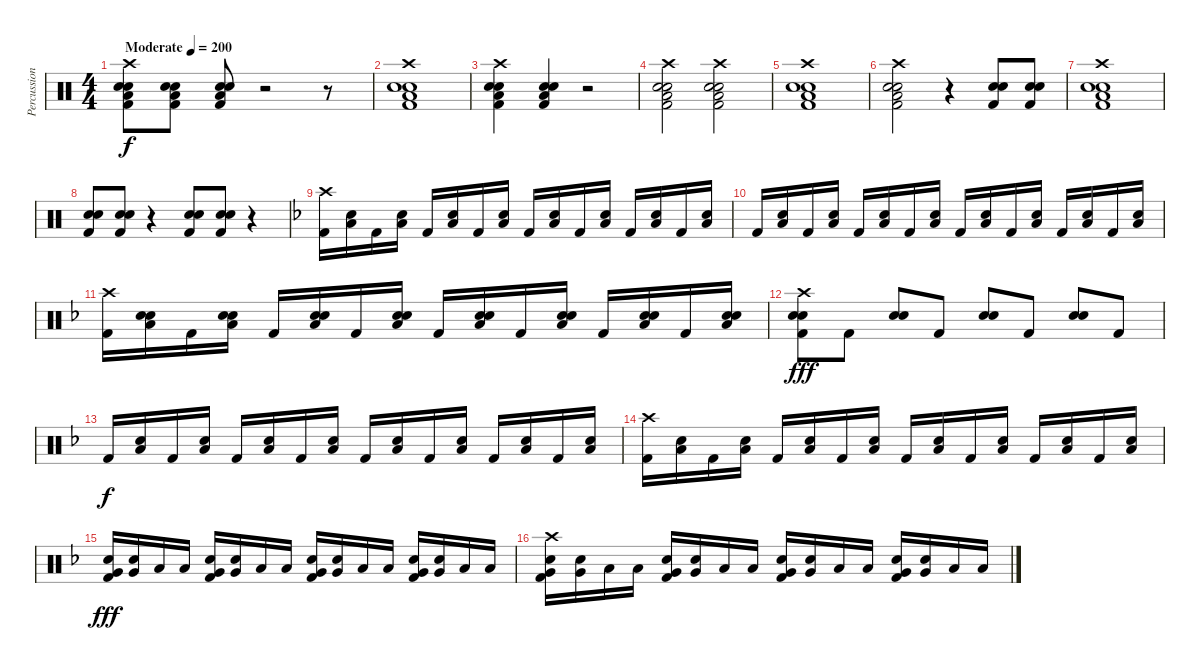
\track ("Percussion, dave" "Percussion") {instrument percussion}
\staff {score}
\articulation defaults
\ts (4 4)
\tempo (200 "Moderate")
\clef neutral
\ks c
("Crash high (hit)" "Low Tom (hit)" "Electric Snare (hit)" "Snare (hit) 2" "Kick (hit) 2").8{dy f} ("Low Tom (hit)" "Electric Snare (hit)" "Snare (hit) 2" "Kick (hit) 2").8 ("Low Tom (hit)" "Electric Snare (hit)" "Snare (hit) 2" "Kick (hit) 2").8 r.2 r.8 |
("Crash high (hit)" "Low Tom (hit)" "Electric Snare (hit)" "Snare (hit) 2" "Kick (hit) 2").1 |
("Crash high (hit)" "Low Tom (hit)" "Electric Snare (hit)" "Snare (hit) 2" "Kick (hit) 2").4 ("Low Tom (hit)" "Electric Snare (hit)" "Snare (hit) 2" "Kick (hit) 2").4 r.2 |
("Crash high (hit)" "Low Tom (hit)" "Electric Snare (hit)" "Snare (hit) 2" "Kick (hit) 2").2 ("Crash high (hit)" "Low Tom (hit)" "Electric Snare (hit)" "Snare (hit) 2" "Kick (hit) 2").2 |
("Crash high (hit)" "Low Tom (hit)" "Electric Snare (hit)" "Snare (hit) 2" "Kick (hit) 2").1 |
("Crash high (hit)" "Low Tom (hit)" "Electric Snare (hit)" "Snare (hit) 2" "Kick (hit) 2").2 r.4 ("Electric Snare (hit)" "Snare (hit) 2" "Kick (hit) 2").8 ("Electric Snare (hit)" "Snare (hit) 2" "Kick (hit) 2").8 |
("Crash high (hit)" "Low Tom (hit)" "Electric Snare (hit)" "Snare (hit) 2" "Kick (hit) 2").1 |
("Electric Snare (hit)" "Snare (hit) 2" "Kick (hit) 2").8 ("Electric Snare (hit)" "Snare (hit) 2" "Kick (hit) 2").8 r.4 ("Electric Snare (hit)" "Snare (hit) 2" "Kick (hit) 2").8 ("Electric Snare (hit)" "Snare (hit) 2" "Kick (hit) 2").8 r.4 |
\ks f
("Crash high (hit)" "Kick (hit) 2").16 ("Low Tom (hit)" "Snare (hit) 2").16 "Kick (hit) 2".16 ("Low Tom (hit)" "Snare (hit) 2").16 "Kick (hit) 2".16 ("Low Tom (hit)" "Snare (hit) 2").16 "Kick (hit) 2".16 ("Low Tom (hit)" "Snare (hit) 2").16 "Kick (hit) 2".16 ("Low Tom (hit)" "Snare (hit) 2").16 "Kick (hit) 2".16 ("Low Tom (hit)" "Snare (hit) 2").16 "Kick (hit) 2".16 ("Low Tom (hit)" "Snare (hit) 2").16 "Kick (hit) 2".16 ("Low Tom (hit)" "Snare (hit) 2").16 |
"Kick (hit) 2".16 ("Low Tom (hit)" "Snare (hit) 2").16 "Kick (hit) 2".16 ("Low Tom (hit)" "Snare (hit) 2").16 "Kick (hit) 2".16 ("Low Tom (hit)" "Snare (hit) 2").16 "Kick (hit) 2".16 ("Low Tom (hit)" "Snare (hit) 2").16 "Kick (hit) 2".16 ("Low Tom (hit)" "Snare (hit) 2").16 "Kick (hit) 2".16 ("Low Tom (hit)" "Snare (hit) 2").16 "Kick (hit) 2".16 ("Low Tom (hit)" "Snare (hit) 2").16 "Kick (hit) 2".16 ("Low Tom (hit)" "Snare (hit) 2").16 |
("Crash high (hit)" "Kick (hit) 2").16 ("Electric Snare (hit)" "Low Tom (hit)" "Snare (hit) 2").16 "Kick (hit) 2".16 ("Electric Snare (hit)" "Low Tom (hit)" "Snare (hit) 2").16 "Kick (hit) 2".16 ("Electric Snare (hit)" "Low Tom (hit)" "Snare (hit) 2").16 "Kick (hit) 2".16 ("Electric Snare (hit)" "Low Tom (hit)" "Snare (hit) 2").16 "Kick (hit) 2".16 ("Electric Snare (hit)" "Low Tom (hit)" "Snare (hit) 2").16 "Kick (hit) 2".16 ("Electric Snare (hit)" "Low Tom (hit)" "Snare (hit) 2").16 "Kick (hit) 2".16 ("Electric Snare (hit)" "Low Tom (hit)" "Snare (hit) 2").16 "Kick (hit) 2".16 ("Electric Snare (hit)" "Low Tom (hit)" "Snare (hit) 2").16 |
("Crash high (hit)" "Electric Snare (hit)" "Snare (hit) 2" "Kick (hit) 2").8{dy fff} "Kick (hit) 2".8 ("Electric Snare (hit)" "Snare (hit) 2").8 "Kick (hit) 2".8 ("Electric Snare (hit)" "Snare (hit) 2").8 "Kick (hit) 2".8 ("Electric Snare (hit)" "Snare (hit) 2").8 "Kick (hit) 2".8 |
"Kick (hit) 2".16{dy f} ("Low Tom (hit)" "Snare (hit) 2").16 "Kick (hit) 2".16 ("Low Tom (hit)" "Snare (hit) 2").16 "Kick (hit) 2".16 ("Low Tom (hit)" "Snare (hit) 2").16 "Kick (hit) 2".16 ("Low Tom (hit)" "Snare (hit) 2").16 "Kick (hit) 2".16 ("Low Tom (hit)" "Snare (hit) 2").16 "Kick (hit) 2".16 ("Low Tom (hit)" "Snare (hit) 2").16 "Kick (hit) 2".16 ("Low Tom (hit)" "Snare (hit) 2").16 "Kick (hit) 2".16 ("Low Tom (hit)" "Snare (hit) 2").16 |
("Crash high (hit)" "Kick (hit) 2").16 ("Low Tom (hit)" "Snare (hit) 2").16 "Kick (hit) 2".16 ("Low Tom (hit)" "Snare (hit) 2").16 "Kick (hit) 2".16 ("Low Tom (hit)" "Snare (hit) 2").16 "Kick (hit) 2".16 ("Low Tom (hit)" "Snare (hit) 2").16 "Kick (hit) 2".16 ("Low Tom (hit)" "Snare (hit) 2").16 "Kick (hit) 2".16 ("Low Tom (hit)" "Snare (hit) 2").16 "Kick (hit) 2".16 ("Low Tom (hit)" "Snare (hit) 2").16 "Kick (hit) 2".16 ("Low Tom (hit)" "Snare (hit) 2").16 |
("Snare (hit) 2" "Very Low Tom (hit)" "Kick (hit) 2").16{dy fff} ("Snare (hit) 2" "Very Low Tom (hit)").16 "Low Tom (hit)".16 "Low Tom (hit)".16 ("Snare (hit) 2" "Very Low Tom (hit)" "Kick (hit) 2").16 ("Snare (hit) 2" "Very Low Tom (hit)").16 "Low Tom (hit)".16 "Low Tom (hit)".16 ("Snare (hit) 2" "Very Low Tom (hit)" "Kick (hit) 2").16 ("Snare (hit) 2" "Very Low Tom (hit)").16 "Low Tom (hit)".16 "Low Tom (hit)".16 ("Snare (hit) 2" "Very Low Tom (hit)" "Kick (hit) 2").16 ("Snare (hit) 2" "Very Low Tom (hit)").16 "Low Tom (hit)".16 "Low Tom (hit)".16 |
("Crash high (hit)" "Snare (hit) 2" "Very Low Tom (hit)" "Kick (hit) 2").16 ("Snare (hit) 2" "Very Low Tom (hit)").16 "Low Tom (hit)".16 "Low Tom (hit)".16 ("Snare (hit) 2" "Very Low Tom (hit)" "Kick (hit) 2").16 ("Snare (hit) 2" "Very Low Tom (hit)").16 "Low Tom (hit)".16 "Low Tom (hit)".16 ("Snare (hit) 2" "Very Low Tom (hit)" "Kick (hit) 2").16 ("Snare (hit) 2" "Very Low Tom (hit)").16 "Low Tom (hit)".16 "Low Tom (hit)".16 ("Snare (hit) 2" "Very Low Tom (hit)" "Kick (hit) 2").16 ("Snare (hit) 2" "Very Low Tom (hit)").16 "Low Tom (hit)".16 "Low Tom (hit)".16
